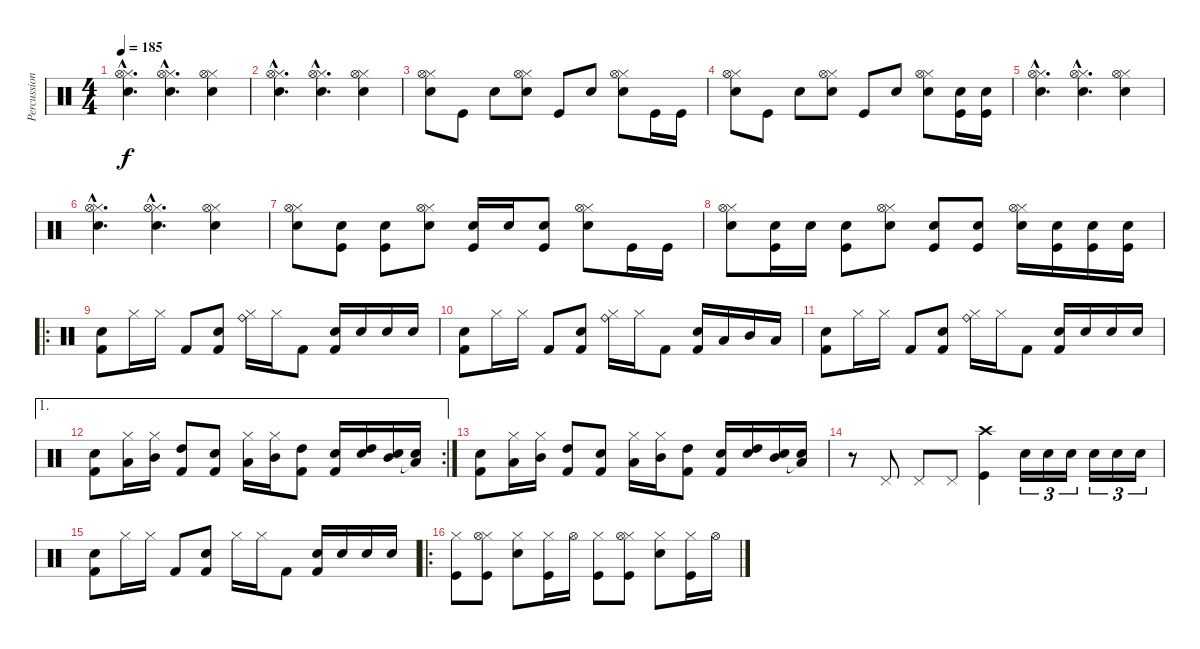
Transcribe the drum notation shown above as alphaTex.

\track ("Percussion" "Percussion") {instrument percussion}
\staff {score}
\articulation defaults
\ts (4 4)
\tempo 185
\clef neutral
\ks c
("Hi-Hat (closed)"{hac} "Hi-Hat (open)"{hac} "Electric Snare (hit)"{hac}).4{d dy f} ("Hi-Hat (closed)"{hac} "Hi-Hat (open)"{hac} "Electric Snare (hit)"{hac}).4{d} ("Hi-Hat (closed)" "Hi-Hat (open)" "Electric Snare (hit)").4 |
("Hi-Hat (closed)"{hac} "Hi-Hat (open)"{hac} "Electric Snare (hit)"{hac}).4{d} ("Hi-Hat (closed)"{hac} "Hi-Hat (open)"{hac} "Electric Snare (hit)"{hac}).4{d} ("Hi-Hat (closed)" "Hi-Hat (open)" "Electric Snare (hit)").4 |
("Hi-Hat (closed)" "Hi-Hat (open)" "Electric Snare (hit)").8 "Kick (hit)".8 "Electric Snare (hit)".8 ("Hi-Hat (closed)" "Hi-Hat (open)" "Electric Snare (hit)").8 "Kick (hit)".8 "Electric Snare (hit)".8 ("Hi-Hat (closed)" "Hi-Hat (open)" "Electric Snare (hit)").8 "Kick (hit)".16 "Kick (hit)".16 |
("Hi-Hat (closed)" "Hi-Hat (open)" "Electric Snare (hit)").8 "Kick (hit)".8 "Electric Snare (hit)".8 ("Hi-Hat (closed)" "Hi-Hat (open)" "Electric Snare (hit)").8 "Kick (hit)".8 "Electric Snare (hit)".8 ("Hi-Hat (closed)" "Hi-Hat (open)" "Electric Snare (hit)").8 ("Kick (hit)" "Electric Snare (hit)").16 ("Kick (hit)" "Electric Snare (hit)").16 |
("Hi-Hat (closed)"{hac} "Hi-Hat (open)"{hac} "Electric Snare (hit)"{hac}).4{d} ("Hi-Hat (closed)"{hac} "Hi-Hat (open)"{hac} "Electric Snare (hit)"{hac}).4{d} ("Hi-Hat (closed)" "Hi-Hat (open)" "Electric Snare (hit)").4 |
("Hi-Hat (closed)"{hac} "Hi-Hat (open)"{hac} "Electric Snare (hit)"{hac}).4{d} ("Hi-Hat (closed)"{hac} "Hi-Hat (open)"{hac} "Electric Snare (hit)"{hac}).4{d} ("Hi-Hat (closed)" "Hi-Hat (open)" "Electric Snare (hit)").4 |
("Hi-Hat (closed)" "Hi-Hat (open)" "Electric Snare (hit)").8 ("Electric Snare (hit)" "Kick (hit)").8 ("Electric Snare (hit)" "Kick (hit)").8 ("Hi-Hat (closed)" "Hi-Hat (open)" "Electric Snare (hit)").8 ("Electric Snare (hit)" "Kick (hit)").16 "Electric Snare (hit)".16 ("Electric Snare (hit)" "Kick (hit)").8 ("Hi-Hat (closed)" "Hi-Hat (open)" "Electric Snare (hit)").8 "Kick (hit)".16 "Kick (hit)".16 |
("Hi-Hat (closed)" "Hi-Hat (open)" "Electric Snare (hit)").8 ("Electric Snare (hit)" "Kick (hit)").16 "Electric Snare (hit)".16 ("Electric Snare (hit)" "Kick (hit)").8 ("Hi-Hat (closed)" "Hi-Hat (open)" "Electric Snare (hit)").8 ("Electric Snare (hit)" "Kick (hit)").8 ("Electric Snare (hit)" "Kick (hit)").8 ("Hi-Hat (closed)" "Hi-Hat (open)" "Electric Snare (hit)").16 ("Kick (hit)" "Electric Snare (hit)").16 ("Kick (hit)" "Electric Snare (hit)").16 ("Kick (hit)" "Electric Snare (hit)").16 |
\ro
("Snare (hit) 2" "Kick (hit) 2").8 "Hi-Hat (closed)".16 "Hi-Hat (closed)".16 "Kick (hit) 2".8 ("Snare (hit) 2" "Kick (hit) 2").8 ("Hi-Hat (closed)" "Ride (bell)").16 "Hi-Hat (closed)".16 "Kick (hit) 2".8 ("Snare (hit) 2" "Kick (hit) 2").16 "Electric Snare (hit)".16 "Electric Snare (hit)".16 "Electric Snare (hit)".16 |
("Snare (hit) 2" "Kick (hit) 2").8 "Hi-Hat (closed)".16 "Hi-Hat (closed)".16 "Kick (hit) 2".8 ("Snare (hit) 2" "Kick (hit) 2").8 ("Hi-Hat (closed)" "Ride (bell)").16 "Hi-Hat (closed)".16 "Kick (hit) 2".8 ("Snare (hit) 2" "Kick (hit) 2").16 "Low Tom (hit)".16 "Mid Tom (hit)".16 "Low Tom (hit)".16 |
("Snare (hit) 2" "Kick (hit) 2").8 "Hi-Hat (closed)".16 "Hi-Hat (closed)".16 "Kick (hit) 2".8 ("Snare (hit) 2" "Kick (hit) 2").8 ("Hi-Hat (closed)" "Ride (bell)").16 "Hi-Hat (closed)".16 "Kick (hit) 2".8 ("Snare (hit) 2" "Kick (hit) 2").16 "Electric Snare (hit)".16 "Electric Snare (hit)".16 "Electric Snare (hit)".16 |
\ae 1
\rc 2
("Snare (hit) 2" "Kick (hit) 2").8 ("Hi-Hat (closed)" "Low Tom (hit)").16 ("Hi-Hat (closed)" "Mid Tom (hit)").16 ("Kick (hit) 2" "High Tom (hit)").8 ("Snare (hit) 2" "Kick (hit) 2").8 ("Hi-Hat (closed)" "Low Tom (hit)").16 ("Hi-Hat (closed)" "Mid Tom (hit)").16 ("Kick (hit) 2" "High Tom (hit)").8 ("Snare (hit) 2" "Kick (hit) 2").16 ("Electric Snare (hit)" "High Tom (hit)").16 ("Electric Snare (hit)" "Mid Tom (hit)").16 ("Electric Snare (hit)" "Low Tom (hit)"{t}).16 |
("Snare (hit) 2" "Kick (hit) 2").8 ("Hi-Hat (closed)" "Low Tom (hit)").16 ("Hi-Hat (closed)" "Mid Tom (hit)").16 ("Kick (hit) 2" "High Tom (hit)").8 ("Snare (hit) 2" "Kick (hit) 2").8 ("Hi-Hat (closed)" "Low Tom (hit)").16 ("Hi-Hat (closed)" "Mid Tom (hit)").16 ("Kick (hit) 2" "High Tom (hit)").8 ("Snare (hit) 2" "Kick (hit) 2").16 ("Electric Snare (hit)" "High Tom (hit)").16 ("Electric Snare (hit)" "Mid Tom (hit)").16 ("Electric Snare (hit)" "Low Tom (hit)"{t}).16 |
r.8 "Pedal Hi-Hat (hit)".8 "Pedal Hi-Hat (hit)".8 "Pedal Hi-Hat (hit)".8 ("Crash high (hit)" "Kick (hit)").4 "Electric Snare (hit)".16{tu (3 2)} "Electric Snare (hit)".16{tu (3 2)} "Electric Snare (hit)".16{tu (3 2)} "Electric Snare (hit)".16{tu (3 2)} "Electric Snare (hit)".16{tu (3 2)} "Electric Snare (hit)".16{tu (3 2)} |
("Snare (hit) 2" "Kick (hit) 2").8 "Hi-Hat (closed)".16 "Hi-Hat (closed)".16 "Kick (hit) 2".8 ("Snare (hit) 2" "Kick (hit) 2").8 "Hi-Hat (closed)".16 "Hi-Hat (closed)".16 "Kick (hit) 2".8 ("Snare (hit) 2" "Kick (hit) 2").16 "Electric Snare (hit)".16 "Electric Snare (hit)".16 "Electric Snare (hit)".16 |
\ro
("Kick (hit)" "Hi-Hat (closed)").8 ("Kick (hit)" "Hi-Hat (closed)" "Hi-Hat (open)").8 ("Snare (hit) 2" "Hi-Hat (closed)").8 ("Kick (hit)" "Hi-Hat (closed)").16 "Hi-Hat (open)".16 ("Kick (hit)" "Hi-Hat (closed)").8 ("Kick (hit)" "Hi-Hat (closed)" "Hi-Hat (open)").8 ("Snare (hit) 2" "Hi-Hat (closed)").8 ("Kick (hit)" "Hi-Hat (closed)").16 "Hi-Hat (open)".16
